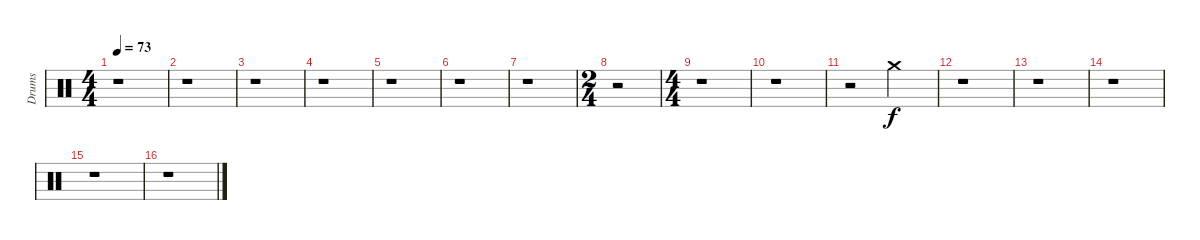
\track ("Drums" "Drums") {instrument percussion}
\staff {score}
\articulation defaults
\ts (4 4)
\tempo 73
\clef neutral
\ks c
r.1{dy f} |
r.1 |
r.1 |
r.1 |
r.1 |
r.1 |
r.1 |
\ts (2 4)
r.2 |
\ts (4 4)
r.1 |
r.1 |
r.2 "Crash medium (hit)".2 |
r.1 |
r.1 |
r.1 |
r.1 |
r.1
